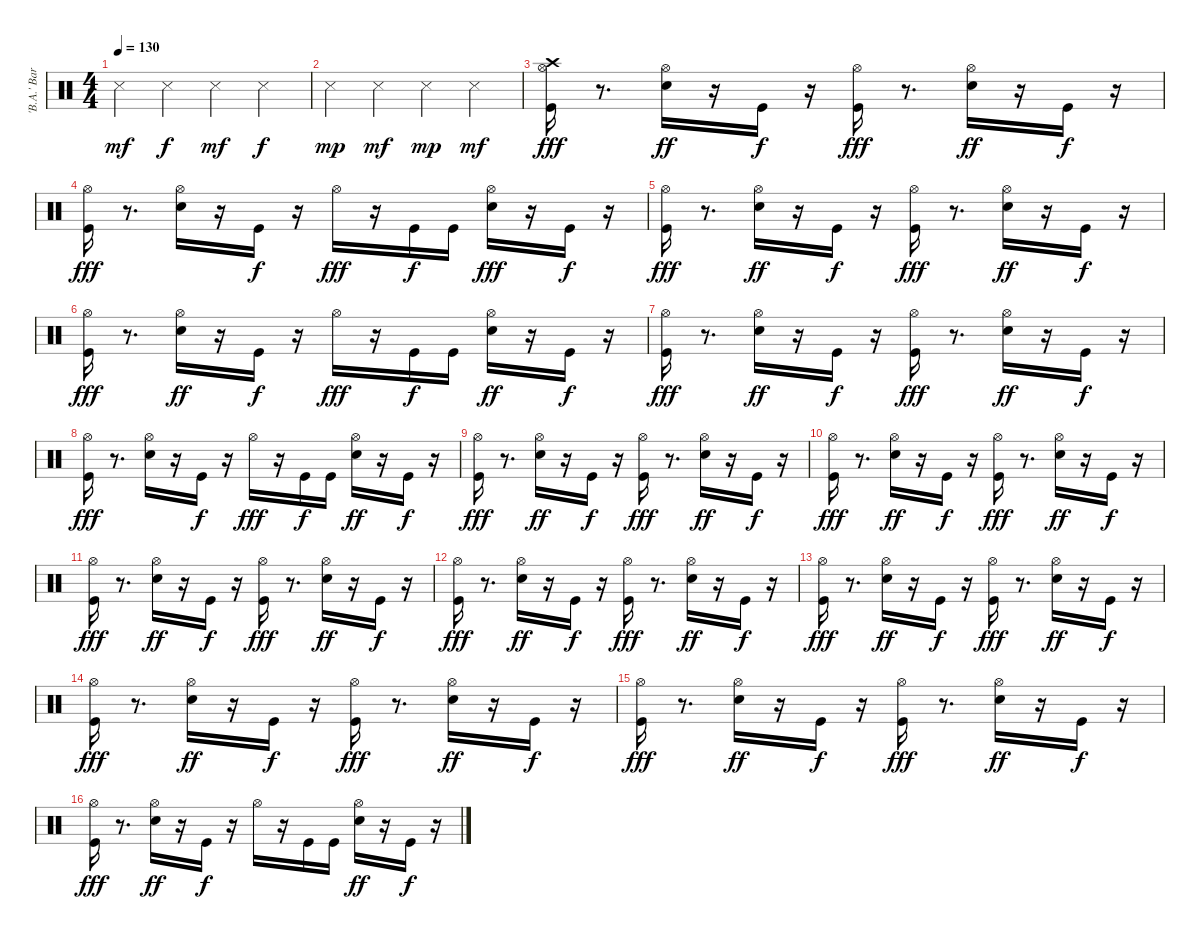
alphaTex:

\track ("'B.A.' Baracus" "'B.A.' Bar") {instrument percussion}
\staff {score}
\articulation defaults
\ts (4 4)
\tempo 130
\clef neutral
\ks c "Snare (side stick) 3".4{dy mf} "Snare (side stick) 3".4{dy f} "Snare (side stick) 3".4{dy mf} "Snare (side stick) 3".4{dy f}
|
"Snare (side stick) 3".4{dy mp} "Snare (side stick) 3".4{dy mf} "Snare (side stick) 3".4{dy mp} "Snare (side stick) 3".4{dy mf} |
("Hi-Hat (open)" "Crash high (hit)" "Kick (hit)").16{dy fff} r.8{d} ("Hi-Hat (open)" "Snare (hit) 2").16{dy ff} r.16 "Kick (hit)".16{dy f} r.16 ("Hi-Hat (open)" "Kick (hit)").16{dy fff} r.8{d} ("Hi-Hat (open)" "Snare (hit) 2").16{dy ff} r.16 "Kick (hit)".16{dy f} r.16 |
("Hi-Hat (open)" "Kick (hit)").16{dy fff} r.8{d} ("Hi-Hat (open)" "Snare (hit) 2").16 r.16 "Kick (hit)".16{dy f} r.16 "Hi-Hat (open)".16{dy fff} r.16 "Kick (hit)".16{dy f} "Kick (hit)".16 ("Hi-Hat (open)" "Snare (hit) 2").16{dy fff} r.16 "Kick (hit)".16{dy f} r.16 |
("Hi-Hat (open)" "Kick (hit)").16{dy fff} r.8{d} ("Hi-Hat (open)" "Snare (hit) 2").16{dy ff} r.16 "Kick (hit)".16{dy f} r.16 ("Hi-Hat (open)" "Kick (hit)").16{dy fff} r.8{d} ("Hi-Hat (open)" "Snare (hit) 2").16{dy ff} r.16 "Kick (hit)".16{dy f} r.16 |
("Hi-Hat (open)" "Kick (hit)").16{dy fff} r.8{d} ("Hi-Hat (open)" "Snare (hit) 2").16{dy ff} r.16 "Kick (hit)".16{dy f} r.16 "Hi-Hat (open)".16{dy fff} r.16 "Kick (hit)".16{dy f} "Kick (hit)".16 ("Hi-Hat (open)" "Snare (hit) 2").16{dy ff} r.16 "Kick (hit)".16{dy f} r.16 |
("Hi-Hat (open)" "Kick (hit)").16{dy fff} r.8{d} ("Hi-Hat (open)" "Snare (hit) 2").16{dy ff} r.16 "Kick (hit)".16{dy f} r.16 ("Hi-Hat (open)" "Kick (hit)").16{dy fff} r.8{d} ("Hi-Hat (open)" "Snare (hit) 2").16{dy ff} r.16 "Kick (hit)".16{dy f} r.16 |
("Hi-Hat (open)" "Kick (hit)").16{dy fff} r.8{d} ("Hi-Hat (open)" "Snare (hit) 2").16 r.16 "Kick (hit)".16{dy f} r.16 "Hi-Hat (open)".16{dy fff} r.16 "Kick (hit)".16{dy f} "Kick (hit)".16 ("Hi-Hat (open)" "Snare (hit) 2").16{dy ff} r.16 "Kick (hit)".16{dy f} r.16 |
("Hi-Hat (open)" "Kick (hit)").16{dy fff} r.8{d} ("Hi-Hat (open)" "Snare (hit) 2").16{dy ff} r.16 "Kick (hit)".16{dy f} r.16 ("Hi-Hat (open)" "Kick (hit)").16{dy fff} r.8{d} ("Hi-Hat (open)" "Snare (hit) 2").16{dy ff} r.16 "Kick (hit)".16{dy f} r.16 |
("Hi-Hat (open)" "Kick (hit)").16{dy fff} r.8{d} ("Hi-Hat (open)" "Snare (hit) 2").16{dy ff} r.16 "Kick (hit)".16{dy f} r.16 ("Hi-Hat (open)" "Kick (hit)").16{dy fff} r.8{d} ("Hi-Hat (open)" "Snare (hit) 2").16{dy ff} r.16 "Kick (hit)".16{dy f} r.16 |
("Hi-Hat (open)" "Kick (hit)").16{dy fff} r.8{d} ("Hi-Hat (open)" "Snare (hit) 2").16{dy ff} r.16 "Kick (hit)".16{dy f} r.16 ("Hi-Hat (open)" "Kick (hit)").16{dy fff} r.8{d} ("Hi-Hat (open)" "Snare (hit) 2").16{dy ff} r.16 "Kick (hit)".16{dy f} r.16 |
("Hi-Hat (open)" "Kick (hit)").16{dy fff} r.8{d} ("Hi-Hat (open)" "Snare (hit) 2").16{dy ff} r.16 "Kick (hit)".16{dy f} r.16 ("Hi-Hat (open)" "Kick (hit)").16{dy fff} r.8{d} ("Hi-Hat (open)" "Snare (hit) 2").16{dy ff} r.16 "Kick (hit)".16{dy f} r.16 |
("Hi-Hat (open)" "Kick (hit)").16{dy fff} r.8{d} ("Hi-Hat (open)" "Snare (hit) 2").16{dy ff} r.16 "Kick (hit)".16{dy f} r.16 ("Hi-Hat (open)" "Kick (hit)").16{dy fff} r.8{d} ("Hi-Hat (open)" "Snare (hit) 2").16{dy ff} r.16 "Kick (hit)".16{dy f} r.16 |
("Hi-Hat (open)" "Kick (hit)").16{dy fff} r.8{d} ("Hi-Hat (open)" "Snare (hit) 2").16{dy ff} r.16 "Kick (hit)".16{dy f} r.16 ("Hi-Hat (open)" "Kick (hit)").16{dy fff} r.8{d} ("Hi-Hat (open)" "Snare (hit) 2").16{dy ff} r.16 "Kick (hit)".16{dy f} r.16 |
("Hi-Hat (open)" "Kick (hit)").16{dy fff} r.8{d} ("Hi-Hat (open)" "Snare (hit) 2").16{dy ff} r.16 "Kick (hit)".16{dy f} r.16 ("Hi-Hat (open)" "Kick (hit)").16{dy fff} r.8{d} ("Hi-Hat (open)" "Snare (hit) 2").16{dy ff} r.16 "Kick (hit)".16{dy f} r.16 |
("Hi-Hat (open)" "Kick (hit)").16{dy fff} r.8{d} ("Hi-Hat (open)" "Snare (hit) 2").16{dy ff} r.16 "Kick (hit)".16{dy f} r.16 "Hi-Hat (open)".16 r.16 "Kick (hit)".16 "Kick (hit)".16 ("Hi-Hat (open)" "Snare (hit) 2").16{dy ff} r.16 "Kick (hit)".16{dy f} r.16
